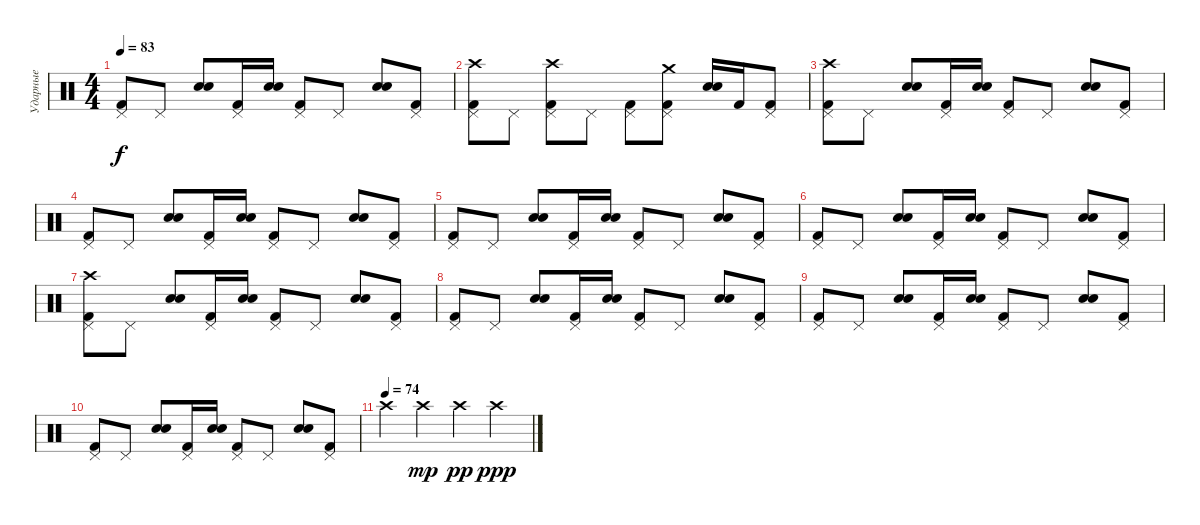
\track ("Ударные" "Ударные") {instrument percussion}
\staff {score}
\articulation defaults
\ts (4 4)
\tempo 83
\clef neutral
\ks c
("Kick (hit) 2" "Pedal Hi-Hat (hit)").8{dy f} "Pedal Hi-Hat (hit)".8 ("Hand Clap (hit)" "Electric Snare (hit)").8 ("Kick (hit) 2" "Pedal Hi-Hat (hit)").16 ("Hand Clap (hit)" "Electric Snare (hit)").16 ("Kick (hit) 2" "Pedal Hi-Hat (hit)").8 "Pedal Hi-Hat (hit)".8 ("Hand Clap (hit)" "Electric Snare (hit)").8 ("Kick (hit) 2" "Pedal Hi-Hat (hit)").8 |
("Kick (hit) 2" "Crash high (hit)" "Pedal Hi-Hat (hit)").8 "Pedal Hi-Hat (hit)".8 ("Kick (hit) 2" "Crash high (hit)" "Pedal Hi-Hat (hit)").8 "Pedal Hi-Hat (hit)".8 ("Kick (hit) 2" "Pedal Hi-Hat (hit)").8 ("Kick (hit) 2" "Crash medium (hit)" "Pedal Hi-Hat (hit)").8 ("Electric Snare (hit)" "Hand Clap (hit)").16 "Kick (hit) 2".16 ("Kick (hit) 2" "Pedal Hi-Hat (hit)").8 |
("Kick (hit) 2" "Pedal Hi-Hat (hit)" "Crash high (hit)").8 "Pedal Hi-Hat (hit)".8 ("Hand Clap (hit)" "Electric Snare (hit)").8 ("Kick (hit) 2" "Pedal Hi-Hat (hit)").16 ("Hand Clap (hit)" "Electric Snare (hit)").16 ("Kick (hit) 2" "Pedal Hi-Hat (hit)").8 "Pedal Hi-Hat (hit)".8 ("Hand Clap (hit)" "Electric Snare (hit)").8 ("Kick (hit) 2" "Pedal Hi-Hat (hit)").8 |
("Kick (hit) 2" "Pedal Hi-Hat (hit)").8 "Pedal Hi-Hat (hit)".8 ("Hand Clap (hit)" "Electric Snare (hit)").8 ("Kick (hit) 2" "Pedal Hi-Hat (hit)").16 ("Hand Clap (hit)" "Electric Snare (hit)").16 ("Kick (hit) 2" "Pedal Hi-Hat (hit)").8 "Pedal Hi-Hat (hit)".8 ("Hand Clap (hit)" "Electric Snare (hit)").8 ("Kick (hit) 2" "Pedal Hi-Hat (hit)").8 |
("Kick (hit) 2" "Pedal Hi-Hat (hit)").8 "Pedal Hi-Hat (hit)".8 ("Hand Clap (hit)" "Electric Snare (hit)").8 ("Kick (hit) 2" "Pedal Hi-Hat (hit)").16 ("Hand Clap (hit)" "Electric Snare (hit)").16 ("Kick (hit) 2" "Pedal Hi-Hat (hit)").8 "Pedal Hi-Hat (hit)".8 ("Hand Clap (hit)" "Electric Snare (hit)").8 ("Kick (hit) 2" "Pedal Hi-Hat (hit)").8 |
("Kick (hit) 2" "Pedal Hi-Hat (hit)").8 "Pedal Hi-Hat (hit)".8 ("Hand Clap (hit)" "Electric Snare (hit)").8 ("Kick (hit) 2" "Pedal Hi-Hat (hit)").16 ("Hand Clap (hit)" "Electric Snare (hit)").16 ("Kick (hit) 2" "Pedal Hi-Hat (hit)").8 "Pedal Hi-Hat (hit)".8 ("Hand Clap (hit)" "Electric Snare (hit)").8 ("Kick (hit) 2" "Pedal Hi-Hat (hit)").8 |
("Kick (hit) 2" "Pedal Hi-Hat (hit)" "Crash high (hit)").8 "Pedal Hi-Hat (hit)".8 ("Hand Clap (hit)" "Electric Snare (hit)").8 ("Kick (hit) 2" "Pedal Hi-Hat (hit)").16 ("Hand Clap (hit)" "Electric Snare (hit)").16 ("Kick (hit) 2" "Pedal Hi-Hat (hit)").8 "Pedal Hi-Hat (hit)".8 ("Hand Clap (hit)" "Electric Snare (hit)").8 ("Kick (hit) 2" "Pedal Hi-Hat (hit)").8 |
("Kick (hit) 2" "Pedal Hi-Hat (hit)").8 "Pedal Hi-Hat (hit)".8 ("Hand Clap (hit)" "Electric Snare (hit)").8 ("Kick (hit) 2" "Pedal Hi-Hat (hit)").16 ("Hand Clap (hit)" "Electric Snare (hit)").16 ("Kick (hit) 2" "Pedal Hi-Hat (hit)").8 "Pedal Hi-Hat (hit)".8 ("Hand Clap (hit)" "Electric Snare (hit)").8 ("Kick (hit) 2" "Pedal Hi-Hat (hit)").8 |
("Kick (hit) 2" "Pedal Hi-Hat (hit)").8 "Pedal Hi-Hat (hit)".8 ("Hand Clap (hit)" "Electric Snare (hit)").8 ("Kick (hit) 2" "Pedal Hi-Hat (hit)").16 ("Hand Clap (hit)" "Electric Snare (hit)").16 ("Kick (hit) 2" "Pedal Hi-Hat (hit)").8 "Pedal Hi-Hat (hit)".8 ("Hand Clap (hit)" "Electric Snare (hit)").8 ("Kick (hit) 2" "Pedal Hi-Hat (hit)").8 |
("Kick (hit) 2" "Pedal Hi-Hat (hit)").8 "Pedal Hi-Hat (hit)".8 ("Hand Clap (hit)" "Electric Snare (hit)").8 ("Kick (hit) 2" "Pedal Hi-Hat (hit)").16 ("Hand Clap (hit)" "Electric Snare (hit)").16 ("Kick (hit) 2" "Pedal Hi-Hat (hit)").8 "Pedal Hi-Hat (hit)".8 ("Hand Clap (hit)" "Electric Snare (hit)").8 ("Kick (hit) 2" "Pedal Hi-Hat (hit)").8 |
\tempo (74)
"Crash high (hit)".4 "Crash high (hit)".4{dy mp} "Crash high (hit)".4{dy pp} "Crash high (hit)".4{dy ppp}
